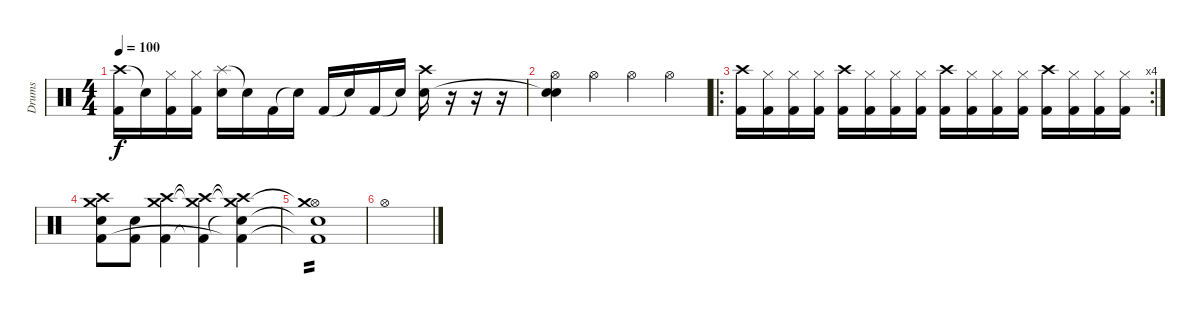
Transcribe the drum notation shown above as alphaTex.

\track ("Drums" "Drums") {instrument percussion}
\staff {score}
\articulation defaults
\ts (4 4)
\tempo 100
\clef neutral
\ks c
("Crash high (hit)" "Kick (hit) 2").16{dy f} "Snare (hit)"{t}.16 ("Hi-Hat (closed)" "Kick (hit) 2").16 ("Hi-Hat (closed)" "Kick (hit) 2").16 ("Splash (hit)" "Electric Snare (hit)").16 "Snare (hit)"{t}.16 "Kick (hit) 2".16 "Snare (hit)"{t}.16 "Kick (hit) 2".16 "Snare (hit)"{t}.16 "Kick (hit) 2".16 "Snare (hit)"{t}.16 ("Crash high (hit)" "Electric Snare (hit)").16 r.16 r.16 r.16 |
("Hi-Hat (open)" "Snare (hit)"{t} "Snare (hit)").4 "Hi-Hat (open)".4 "Hi-Hat (open)".4 "Hi-Hat (open)".4 |
\ro
\rc 4
("Crash high (hit)" "Kick (hit) 2").16 ("Hi-Hat (closed)" "Kick (hit) 2").16 ("Hi-Hat (closed)" "Kick (hit) 2").16 ("Hi-Hat (closed)" "Kick (hit) 2").16 ("Crash high (hit)" "Kick (hit) 2").16 ("Hi-Hat (closed)" "Kick (hit) 2").16 ("Hi-Hat (closed)" "Kick (hit) 2").16 ("Hi-Hat (closed)" "Kick (hit) 2").16 ("Crash high (hit)" "Kick (hit) 2").16 ("Hi-Hat (closed)" "Kick (hit) 2").16 ("Hi-Hat (closed)" "Kick (hit) 2").16 ("Hi-Hat (closed)" "Kick (hit) 2").16 ("Crash high (hit)" "Kick (hit) 2").16 ("Hi-Hat (closed)" "Kick (hit) 2").16 ("Hi-Hat (closed)" "Kick (hit) 2").16 ("Hi-Hat (closed)" "Kick (hit) 2").16 |
("Crash high (hit)" "Crash medium (hit)" "Electric Snare (hit)" "Kick (hit) 2").8 ("Electric Snare (hit)" "Kick (hit) 2").8 ("Crash high (hit)" "Crash medium (hit)" "Kick (hit) 2").4 ("Crash high (hit)"{t} "Crash medium (hit)"{t} "Kick (hit) 2"{t}).4 ("Crash high (hit)"{t} "Crash medium (hit)"{t} "Snare (hit)"{t} "Kick (hit) 2"{t}).4 |
("Hi-Hat (open)" "Crash medium (hit)"{t} "Snare (hit)"{t} "Kick (hit) 2"{t}).1{tp 2} |
"Hi-Hat (open)".1
